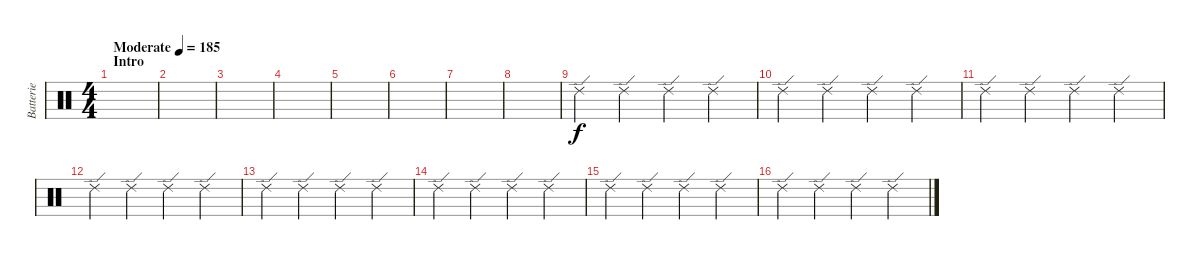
\track ("Batterie" "Batterie") {instrument percussion}
\staff {score}
\articulation defaults
\ts (4 4)
\section ("" "Intro")
\tempo (185 "Moderate")
\clef neutral
\ks c
|
|
|
|
|
|
|
|
"Ride (edge) 2".4 "Ride (edge) 2".4 "Ride (edge) 2".4 "Ride (edge) 2".4 |
"Ride (edge) 2".4 "Ride (edge) 2".4 "Ride (edge) 2".4 "Ride (edge) 2".4 |
"Ride (edge) 2".4 "Ride (edge) 2".4 "Ride (edge) 2".4 "Ride (edge) 2".4 |
"Ride (edge) 2".4 "Ride (edge) 2".4 "Ride (edge) 2".4 "Ride (edge) 2".4 |
"Ride (edge) 2".4 "Ride (edge) 2".4 "Ride (edge) 2".4 "Ride (edge) 2".4 |
"Ride (edge) 2".4 "Ride (edge) 2".4 "Ride (edge) 2".4 "Ride (edge) 2".4 |
"Ride (edge) 2".4 "Ride (edge) 2".4 "Ride (edge) 2".4 "Ride (edge) 2".4 |
"Ride (edge) 2".4 "Ride (edge) 2".4 "Ride (edge) 2".4 "Ride (edge) 2".4
